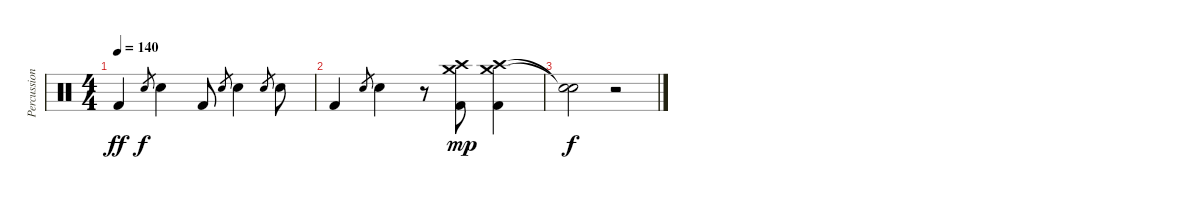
\track ("Percussion" "Percussion") {instrument percussion}
\staff {score}
\articulation defaults
\ts (4 4)
\tempo 140
\clef neutral
\ks c "Kick (hit) 2".4{dy ff} "Electric Snare (hit)".8{gr dy f} "Electric Snare (hit)".4 "Kick (hit) 2".8 "Electric Snare (hit)".8{gr} "Electric Snare (hit)".4 "Electric Snare (hit)".8{gr} "Electric Snare (hit)".8
|
"Kick (hit) 2".4 "Electric Snare (hit)".8{gr} "Electric Snare (hit)".4 r.8 ("Crash medium (hit)" "Crash high (hit)" "Kick (hit) 2").8{dy mp} ("Crash high (hit)" "Crash medium (hit)" "Kick (hit) 2").4 |
("Snare (hit)"{t} "Snare (hit)"{t}).2{dy f} r.2
